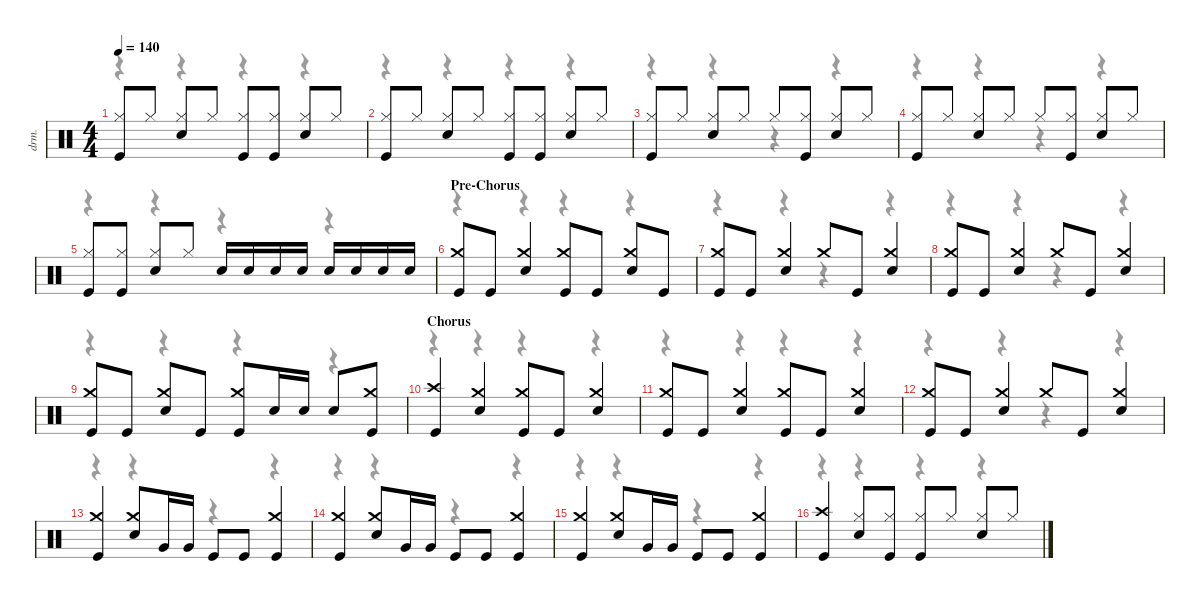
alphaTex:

\defaultSystemsLayout 4
\hideDynamics
\bracketExtendMode nobrackets
\otherSystemsTrackNameOrientation horizontal
\track ("Alex Van Halen (Drums)" "drm.") {instrument percussion}
\staff {score}
\articulation defaults
\voice
\ts (4 4)
\tempo 140
\clef neutral
\ks c
("Hi-Hat (closed)" "Kick (hit)").8{dy f beam Up} "Hi-Hat (closed)".8{beam Up} ("Hi-Hat (closed)" "Snare (hit) 2").8{beam Up} "Hi-Hat (closed)".8{beam Up} ("Hi-Hat (closed)" "Kick (hit)").8{beam Up} ("Hi-Hat (closed)" "Kick (hit)").8{beam Up} ("Hi-Hat (closed)" "Snare (hit) 2").8{beam Up} "Hi-Hat (closed)".8{beam Up} |
("Hi-Hat (closed)" "Kick (hit)").8{beam Up} "Hi-Hat (closed)".8{beam Up} ("Hi-Hat (closed)" "Snare (hit) 2").8{beam Up} "Hi-Hat (closed)".8{beam Up} ("Hi-Hat (closed)" "Kick (hit)").8{beam Up} ("Hi-Hat (closed)" "Kick (hit)").8{beam Up} ("Hi-Hat (closed)" "Snare (hit) 2").8{beam Up} "Hi-Hat (closed)".8{beam Up} |
("Hi-Hat (closed)" "Kick (hit)").8{beam Up} "Hi-Hat (closed)".8{beam Up} ("Hi-Hat (closed)" "Snare (hit) 2").8{beam Up} "Hi-Hat (closed)".8{beam Up} "Hi-Hat (closed)".8{beam Up} ("Hi-Hat (closed)" "Kick (hit)").8{beam Up} ("Hi-Hat (closed)" "Snare (hit) 2").8{beam Up} "Hi-Hat (closed)".8{beam Up} |
("Hi-Hat (closed)" "Kick (hit)").8{beam Up} "Hi-Hat (closed)".8{beam Up} ("Hi-Hat (closed)" "Snare (hit) 2").8{beam Up} "Hi-Hat (closed)".8{beam Up} "Hi-Hat (closed)".8{beam Up} ("Hi-Hat (closed)" "Kick (hit)").8{beam Up} ("Hi-Hat (closed)" "Snare (hit) 2").8{beam Up} "Hi-Hat (closed)".8{beam Up} |
("Hi-Hat (closed)" "Kick (hit)").8{beam Up} ("Hi-Hat (closed)" "Kick (hit)").8{beam Up} ("Hi-Hat (closed)" "Snare (hit) 2").8{beam Up} "Hi-Hat (closed)".8{beam Up} "Snare (hit) 2".16{beam Up} "Snare (hit) 2".16{beam Up} "Snare (hit) 2".16{beam Up} "Snare (hit) 2".16{beam Up} "Snare (hit) 2".16{beam Up} "Snare (hit) 2".16{beam Up} "Snare (hit) 2".16{beam Up} "Snare (hit) 2".16{beam Up} |
\section ("" "Pre-Chorus")
("Crash medium (hit)" "Kick (hit)").8{dy mf beam Up} "Kick (hit)".8{dy f beam Up} ("Crash medium (hit)" "Snare (hit) 2").4{dy mf beam Up} ("Crash medium (hit)" "Kick (hit)").8{beam Up} "Kick (hit)".8{dy f beam Up} ("Crash medium (hit)" "Snare (hit) 2").8{dy mf beam Up} "Kick (hit)".8{dy f beam Up} |
("Crash medium (hit)" "Kick (hit)").8{dy mf beam Up} "Kick (hit)".8{dy f beam Up} ("Crash medium (hit)" "Snare (hit) 2").4{dy mf beam Up} "Crash medium (hit)".8{beam Up} "Kick (hit)".8{dy f beam Up} ("Crash medium (hit)" "Snare (hit) 2").4{dy mf beam Up} |
("Crash medium (hit)" "Kick (hit)").8{beam Up} "Kick (hit)".8{dy f beam Up} ("Crash medium (hit)" "Snare (hit) 2").4{dy mf beam Up} "Crash medium (hit)".8{beam Up} "Kick (hit)".8{dy f beam Up} ("Crash medium (hit)" "Snare (hit) 2").4{dy mf beam Up} |
("Crash medium (hit)" "Kick (hit)").8{beam Up} "Kick (hit)".8{dy f beam Up} ("Crash medium (hit)" "Snare (hit) 2").8{dy mf beam Up} "Kick (hit)".8{dy f beam Up} ("Crash medium (hit)" "Kick (hit)").8{dy mf beam Up} "Snare (hit) 2".16{dy f beam Up} "Snare (hit) 2".16{beam Up} "Snare (hit) 2".8{beam Up} ("Crash medium (hit)" "Kick (hit)").8{dy mf beam Up} |
\section ("" "Chorus")
("Crash high (hit)" "Kick (hit)").4{dy f beam Up} ("Crash medium (hit)" "Snare (hit) 2").4{dy mf beam Up} ("Crash medium (hit)" "Kick (hit)").8{beam Up} "Kick (hit)".8{dy f beam Up} ("Crash medium (hit)" "Snare (hit) 2").4{dy mf beam Up} |
("Crash medium (hit)" "Kick (hit)").8{beam Up} "Kick (hit)".8{dy f beam Up} ("Crash medium (hit)" "Snare (hit) 2").4{dy mf beam Up} ("Crash medium (hit)" "Kick (hit)").8{beam Up} "Kick (hit)".8{dy f beam Up} ("Crash medium (hit)" "Snare (hit) 2").4{dy mf beam Up} |
("Crash medium (hit)" "Kick (hit)").8{beam Up} "Kick (hit)".8{dy f beam Up} ("Crash medium (hit)" "Snare (hit) 2").4{dy mf beam Up} "Crash medium (hit)".8{beam Up} "Kick (hit)".8{dy f beam Up} ("Crash medium (hit)" "Snare (hit) 2").4{dy mf beam Up} |
("Crash medium (hit)" "Kick (hit)").4{beam Up} ("Crash medium (hit)" "Snare (hit) 2").8{beam Up} "Very Low Tom (hit)".16{dy f beam Up} "Very Low Tom (hit)".16{beam Up} "Kick (hit)".8{beam Up} "Kick (hit)".8{beam Up} ("Crash medium (hit)" "Kick (hit)").4{dy mf beam Up} |
("Crash medium (hit)" "Kick (hit)").4{beam Up} ("Crash medium (hit)" "Snare (hit) 2").8{beam Up} "Very Low Tom (hit)".16{dy f beam Up} "Very Low Tom (hit)".16{beam Up} "Kick (hit)".8{beam Up} "Kick (hit)".8{beam Up} ("Crash medium (hit)" "Kick (hit)").4{dy mf beam Up} |
("Crash medium (hit)" "Kick (hit)").4{beam Up} ("Crash medium (hit)" "Snare (hit) 2").8{beam Up} "Very Low Tom (hit)".16{dy f beam Up} "Very Low Tom (hit)".16{beam Up} "Kick (hit)".8{beam Up} "Kick (hit)".8{beam Up} ("Crash medium (hit)" "Kick (hit)").4{dy mf beam Up} |
("Crash high (hit)" "Kick (hit)").4{dy f beam Up} ("Hi-Hat (closed)" "Snare (hit) 2").8{beam Up} ("Hi-Hat (closed)" "Kick (hit)").8{beam Up} ("Hi-Hat (closed)" "Kick (hit)").8{beam Up} "Hi-Hat (closed)".8{beam Up} ("Hi-Hat (closed)" "Snare (hit) 2").8{beam Up} "Hi-Hat (closed)".8{beam Up}
\voice
\clef neutral
\ottava regular
\simile none
\ks c
r.4{dy mf beam Down} r.4{beam Down} r.4{beam Down} r.4{beam Down} |
r.4{beam Down} r.4{beam Down} r.4{beam Down} r.4{beam Down} |
r.4{beam Down} r.4{beam Down} r.4{beam Down} r.4{beam Down} |
r.4{beam Down} r.4{beam Down} r.4{beam Down} r.4{beam Down} |
r.4{beam Down} r.4{beam Down} r.4{beam Down} r.4{beam Down} |
r.4{beam Down} r.4{beam Down} r.4{beam Down} r.4{beam Down} |
r.4{beam Down} r.4{beam Down} r.4{beam Down} r.4{beam Down} |
r.4{beam Down} r.4{beam Down} r.4{beam Down} r.4{beam Down} |
r.4{beam Down} r.4{beam Down} r.4{beam Down} r.4{beam Down} |
r.4{beam Down} r.4{beam Down} r.4{beam Down} r.4{beam Down} |
r.4{beam Down} r.4{beam Down} r.4{beam Down} r.4{beam Down} |
r.4{beam Down} r.4{beam Down} r.4{beam Down} r.4{beam Down} |
r.4{beam Down} r.4{beam Down} r.4{beam Down} r.4{beam Down} |
r.4{beam Down} r.4{beam Down} r.4{beam Down} r.4{beam Down} |
r.4{beam Down} r.4{beam Down} r.4{beam Down} r.4{beam Down} |
r.4{beam Down} r.4{beam Down} r.4{beam Down} r.4{beam Down}
